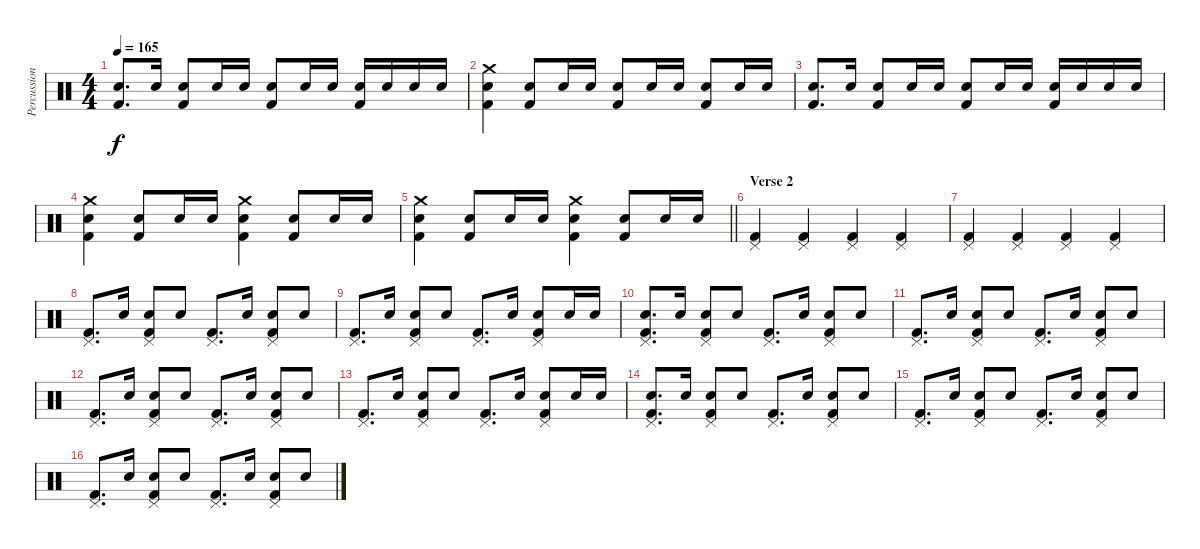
\track ("Percussion" "Percussion") {instrument percussion}
\staff {score}
\articulation defaults
\ts (4 4)
\tempo 165
\clef neutral
\ks c
("Electric Snare (hit)" "Kick (hit) 2").8{d dy f} "Electric Snare (hit)".16 ("Electric Snare (hit)" "Kick (hit) 2").8 "Electric Snare (hit)".16 "Electric Snare (hit)".16 ("Electric Snare (hit)" "Kick (hit) 2").8 "Electric Snare (hit)".16 "Electric Snare (hit)".16 ("Electric Snare (hit)" "Kick (hit) 2").16 "Electric Snare (hit)".16 "Electric Snare (hit)".16 "Electric Snare (hit)".16 |
("Crash medium (hit)" "Electric Snare (hit)" "Kick (hit) 2").4 ("Electric Snare (hit)" "Kick (hit) 2").8 "Electric Snare (hit)".16 "Electric Snare (hit)".16 ("Electric Snare (hit)" "Kick (hit) 2").8 "Electric Snare (hit)".16 "Electric Snare (hit)".16 ("Electric Snare (hit)" "Kick (hit) 2").8 "Electric Snare (hit)".16 "Electric Snare (hit)".16 |
("Electric Snare (hit)" "Kick (hit) 2").8{d} "Electric Snare (hit)".16 ("Electric Snare (hit)" "Kick (hit) 2").8 "Electric Snare (hit)".16 "Electric Snare (hit)".16 ("Electric Snare (hit)" "Kick (hit) 2").8 "Electric Snare (hit)".16 "Electric Snare (hit)".16 ("Electric Snare (hit)" "Kick (hit) 2").16 "Electric Snare (hit)".16 "Electric Snare (hit)".16 "Electric Snare (hit)".16 |
("Crash medium (hit)" "Electric Snare (hit)" "Kick (hit) 2").4 ("Electric Snare (hit)" "Kick (hit) 2").8 "Electric Snare (hit)".16 "Electric Snare (hit)".16 ("Crash medium (hit)" "Electric Snare (hit)" "Kick (hit) 2").4 ("Electric Snare (hit)" "Kick (hit) 2").8 "Electric Snare (hit)".16 "Electric Snare (hit)".16 |
\barLineRight lightlight
("Crash medium (hit)" "Electric Snare (hit)" "Kick (hit) 2").4 ("Electric Snare (hit)" "Kick (hit) 2").8 "Electric Snare (hit)".16 "Electric Snare (hit)".16 ("Crash medium (hit)" "Electric Snare (hit)" "Kick (hit) 2").4 ("Electric Snare (hit)" "Kick (hit) 2").8 "Electric Snare (hit)".16 "Electric Snare (hit)".16 |
\section ("" "Verse 2")
("Pedal Hi-Hat (hit)" "Kick (hit) 2").4 ("Pedal Hi-Hat (hit)" "Kick (hit) 2").4 ("Pedal Hi-Hat (hit)" "Kick (hit) 2").4 ("Pedal Hi-Hat (hit)" "Kick (hit) 2").4 |
("Pedal Hi-Hat (hit)" "Kick (hit) 2").4 ("Pedal Hi-Hat (hit)" "Kick (hit) 2").4 ("Pedal Hi-Hat (hit)" "Kick (hit) 2").4 ("Pedal Hi-Hat (hit)" "Kick (hit) 2").4 |
("Pedal Hi-Hat (hit)" "Kick (hit) 2").8{d} "Electric Snare (hit)".16 ("Pedal Hi-Hat (hit)" "Electric Snare (hit)" "Kick (hit) 2").8 "Electric Snare (hit)".8 ("Pedal Hi-Hat (hit)" "Kick (hit) 2").8{d} "Electric Snare (hit)".16 ("Pedal Hi-Hat (hit)" "Electric Snare (hit)" "Kick (hit) 2").8 "Electric Snare (hit)".8 |
("Pedal Hi-Hat (hit)" "Kick (hit) 2").8{d} "Electric Snare (hit)".16 ("Pedal Hi-Hat (hit)" "Electric Snare (hit)" "Kick (hit) 2").8 "Electric Snare (hit)".8 ("Pedal Hi-Hat (hit)" "Kick (hit) 2").8{d} "Electric Snare (hit)".16 ("Pedal Hi-Hat (hit)" "Electric Snare (hit)" "Kick (hit) 2").8 "Electric Snare (hit)".16 "Electric Snare (hit)".16 |
("Pedal Hi-Hat (hit)" "Electric Snare (hit)" "Kick (hit) 2").8{d} "Electric Snare (hit)".16 ("Pedal Hi-Hat (hit)" "Electric Snare (hit)" "Kick (hit) 2").8 "Electric Snare (hit)".8 ("Pedal Hi-Hat (hit)" "Kick (hit) 2").8{d} "Electric Snare (hit)".16 ("Pedal Hi-Hat (hit)" "Electric Snare (hit)" "Kick (hit) 2").8 "Electric Snare (hit)".8 |
("Pedal Hi-Hat (hit)" "Kick (hit) 2").8{d} "Electric Snare (hit)".16 ("Pedal Hi-Hat (hit)" "Electric Snare (hit)" "Kick (hit) 2").8 "Electric Snare (hit)".8 ("Pedal Hi-Hat (hit)" "Kick (hit) 2").8{d} "Electric Snare (hit)".16 ("Pedal Hi-Hat (hit)" "Electric Snare (hit)" "Kick (hit) 2").8 "Electric Snare (hit)".8 |
("Pedal Hi-Hat (hit)" "Kick (hit) 2").8{d} "Electric Snare (hit)".16 ("Pedal Hi-Hat (hit)" "Electric Snare (hit)" "Kick (hit) 2").8 "Electric Snare (hit)".8 ("Pedal Hi-Hat (hit)" "Kick (hit) 2").8{d} "Electric Snare (hit)".16 ("Pedal Hi-Hat (hit)" "Electric Snare (hit)" "Kick (hit) 2").8 "Electric Snare (hit)".8 |
("Pedal Hi-Hat (hit)" "Kick (hit) 2").8{d} "Electric Snare (hit)".16 ("Pedal Hi-Hat (hit)" "Electric Snare (hit)" "Kick (hit) 2").8 "Electric Snare (hit)".8 ("Pedal Hi-Hat (hit)" "Kick (hit) 2").8{d} "Electric Snare (hit)".16 ("Pedal Hi-Hat (hit)" "Electric Snare (hit)" "Kick (hit) 2").8 "Electric Snare (hit)".16 "Electric Snare (hit)".16 |
("Pedal Hi-Hat (hit)" "Electric Snare (hit)" "Kick (hit) 2").8{d} "Electric Snare (hit)".16 ("Pedal Hi-Hat (hit)" "Electric Snare (hit)" "Kick (hit) 2").8 "Electric Snare (hit)".8 ("Pedal Hi-Hat (hit)" "Kick (hit) 2").8{d} "Electric Snare (hit)".16 ("Pedal Hi-Hat (hit)" "Electric Snare (hit)" "Kick (hit) 2").8 "Electric Snare (hit)".8 |
("Pedal Hi-Hat (hit)" "Kick (hit) 2").8{d} "Electric Snare (hit)".16 ("Pedal Hi-Hat (hit)" "Electric Snare (hit)" "Kick (hit) 2").8 "Electric Snare (hit)".8 ("Pedal Hi-Hat (hit)" "Kick (hit) 2").8{d} "Electric Snare (hit)".16 ("Pedal Hi-Hat (hit)" "Electric Snare (hit)" "Kick (hit) 2").8 "Electric Snare (hit)".8 |
("Pedal Hi-Hat (hit)" "Kick (hit) 2").8{d} "Electric Snare (hit)".16 ("Pedal Hi-Hat (hit)" "Electric Snare (hit)" "Kick (hit) 2").8 "Electric Snare (hit)".8 ("Pedal Hi-Hat (hit)" "Kick (hit) 2").8{d} "Electric Snare (hit)".16 ("Pedal Hi-Hat (hit)" "Electric Snare (hit)" "Kick (hit) 2").8 "Electric Snare (hit)".8
